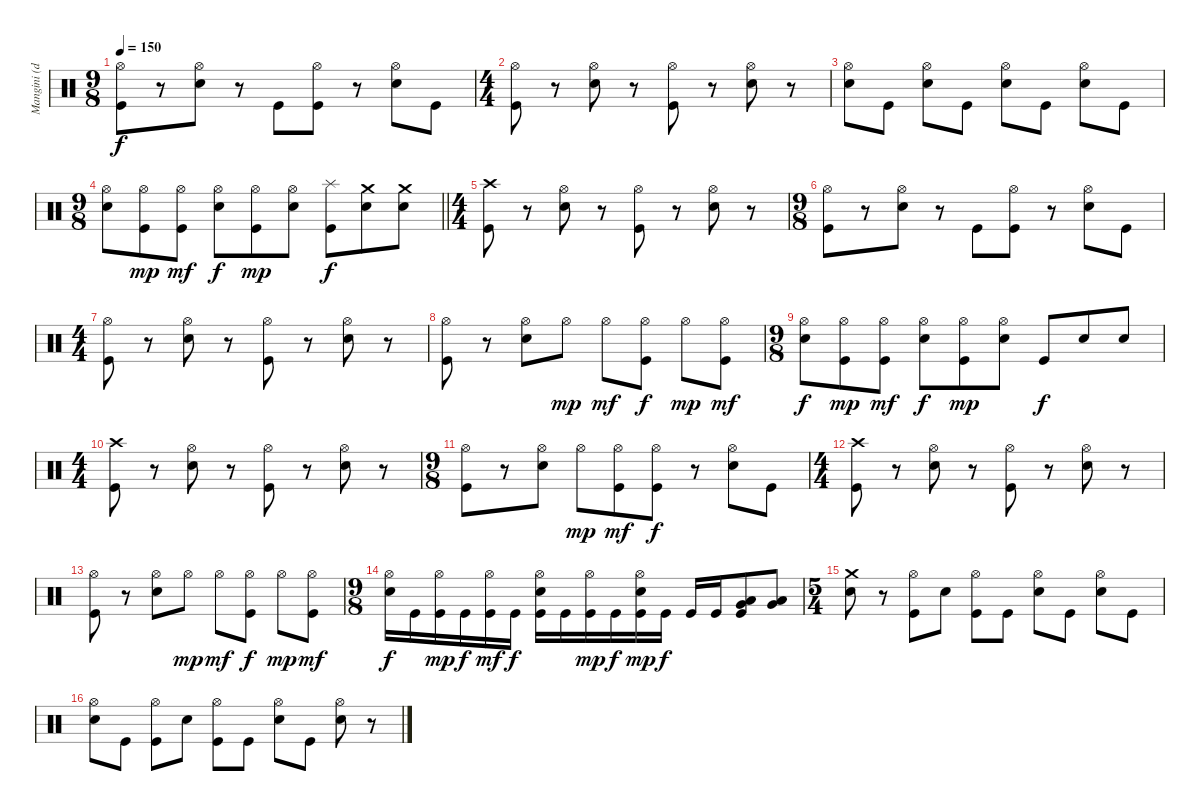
\track ("Mangini (drums)" "Mangini (d") {instrument percussion}
\staff {score}
\articulation defaults
\ts (9 8)
\tempo 150
\clef neutral
\ks aminor
("Hi-Hat (open)" "Kick (hit)").8{dy f} r.8 ("Hi-Hat (open)" "Snare (hit) 2").8 r.8 "Kick (hit)".8 ("Hi-Hat (open)" "Kick (hit)").8 r.8 ("Hi-Hat (open)" "Snare (hit) 2").8 "Kick (hit)".8 |
\ts (4 4)
("Hi-Hat (open)" "Kick (hit)").8 r.8 ("Hi-Hat (open)" "Snare (hit) 2").8 r.8 ("Hi-Hat (open)" "Kick (hit)").8 r.8 ("Hi-Hat (open)" "Snare (hit) 2").8 r.8 |
("Hi-Hat (open)" "Snare (hit) 2").8 "Kick (hit)".8 ("Hi-Hat (open)" "Snare (hit) 2").8 "Kick (hit)".8 ("Hi-Hat (open)" "Snare (hit) 2").8 "Kick (hit)".8 ("Hi-Hat (open)" "Snare (hit) 2").8 "Kick (hit)".8 |
\ts (9 8)
\barLineRight lightlight
("Hi-Hat (open)" "Snare (hit) 2").8 ("Hi-Hat (open)" "Kick (hit)").8{dy mp} ("Hi-Hat (open)" "Kick (hit)").8{dy mf} ("Hi-Hat (open)" "Snare (hit) 2").8{dy f} ("Hi-Hat (open)" "Kick (hit)").8{dy mp} ("Hi-Hat (open)" "Snare (hit) 2").8 ("Splash (hit)" "Kick (hit)").8{dy f} ("Crash medium (hit)" "Snare (hit) 2").8 ("Crash medium (hit)" "Snare (hit) 2").8 |
\ts (4 4)
("Crash high (hit)" "Kick (hit)").8 r.8 ("Hi-Hat (open)" "Snare (hit) 2").8 r.8 ("Hi-Hat (open)" "Kick (hit)").8 r.8 ("Hi-Hat (open)" "Snare (hit) 2").8 r.8 |
\ts (9 8)
("Hi-Hat (open)" "Kick (hit)").8 r.8 ("Hi-Hat (open)" "Snare (hit) 2").8 r.8 "Kick (hit)".8 ("Hi-Hat (open)" "Kick (hit)").8 r.8 ("Hi-Hat (open)" "Snare (hit) 2").8 "Kick (hit)".8 |
\ts (4 4)
("Hi-Hat (open)" "Kick (hit)").8 r.8 ("Hi-Hat (open)" "Snare (hit) 2").8 r.8 ("Hi-Hat (open)" "Kick (hit)").8 r.8 ("Hi-Hat (open)" "Snare (hit) 2").8 r.8 |
("Hi-Hat (open)" "Kick (hit)").8 r.8 ("Hi-Hat (open)" "Snare (hit) 2").8 "Hi-Hat (open)".8{dy mp} "Hi-Hat (open)".8{dy mf} ("Hi-Hat (open)" "Kick (hit)").8{dy f} "Hi-Hat (open)".8{dy mp} ("Hi-Hat (open)" "Kick (hit)").8{dy mf} |
\ts (9 8)
("Hi-Hat (open)" "Snare (hit) 2").8{dy f} ("Hi-Hat (open)" "Kick (hit)").8{dy mp} ("Hi-Hat (open)" "Kick (hit)").8{dy mf} ("Hi-Hat (open)" "Snare (hit) 2").8{dy f} ("Hi-Hat (open)" "Kick (hit)").8{dy mp} ("Hi-Hat (open)" "Snare (hit) 2").8 "Kick (hit)".8{dy f} "Snare (hit) 2".8 "Snare (hit) 2".8 |
\ts (4 4)
("Crash high (hit)" "Kick (hit)").8 r.8 ("Hi-Hat (open)" "Snare (hit) 2").8 r.8 ("Hi-Hat (open)" "Kick (hit)").8 r.8 ("Hi-Hat (open)" "Snare (hit) 2").8 r.8 |
\ts (9 8)
("Hi-Hat (open)" "Kick (hit)").8 r.8 ("Hi-Hat (open)" "Snare (hit) 2").8 "Hi-Hat (open)".8{dy mp} ("Hi-Hat (open)" "Kick (hit)").8{dy mf} ("Hi-Hat (open)" "Kick (hit)").8{dy f} r.8 ("Hi-Hat (open)" "Snare (hit) 2").8 "Kick (hit)".8 |
\ts (4 4)
("Crash high (hit)" "Kick (hit)").8 r.8 ("Hi-Hat (open)" "Snare (hit) 2").8 r.8 ("Hi-Hat (open)" "Kick (hit)").8 r.8 ("Hi-Hat (open)" "Snare (hit) 2").8 r.8 |
("Hi-Hat (open)" "Kick (hit)").8 r.8 ("Hi-Hat (open)" "Snare (hit) 2").8 "Hi-Hat (open)".8{dy mp} "Hi-Hat (open)".8{dy mf} ("Hi-Hat (open)" "Kick (hit)").8{dy f} "Hi-Hat (open)".8{dy mp} ("Hi-Hat (open)" "Kick (hit)").8{dy mf} |
\ts (9 8)
("Hi-Hat (open)" "Snare (hit) 2").16{dy f} "Kick (hit)".16 ("Hi-Hat (open)" "Kick (hit)").16{dy mp} "Kick (hit)".16{dy f} ("Hi-Hat (open)" "Kick (hit)").16{dy mf} "Kick (hit)".16{dy f} ("Hi-Hat (open)" "Snare (hit) 2" "Kick (hit)").16 "Kick (hit)".16 ("Hi-Hat (open)" "Kick (hit)").16{dy mp} "Kick (hit)".16{dy f} ("Hi-Hat (open)" "Snare (hit) 2" "Kick (hit)").16{dy mp} "Kick (hit)".16{dy f} "Kick (hit)".16 "Kick (hit)".16 ("Very Low Tom (hit)" "Low Tom (hit)" "Kick (hit)").8 ("Very Low Tom (hit)" "Low Tom (hit)").8 |
\ts (5 4)
("Crash medium (hit)" "Snare (hit) 2").8 r.8 ("Hi-Hat (open)" "Kick (hit)").8 "Snare (hit) 2".8 ("Hi-Hat (open)" "Kick (hit)").8 "Kick (hit)".8 ("Hi-Hat (open)" "Snare (hit) 2").8 "Kick (hit)".8 ("Hi-Hat (open)" "Snare (hit) 2").8 "Kick (hit)".8 |
("Hi-Hat (open)" "Snare (hit) 2").8 "Kick (hit)".8 ("Hi-Hat (open)" "Kick (hit)").8 "Snare (hit) 2".8 ("Hi-Hat (open)" "Kick (hit)").8 "Kick (hit)".8 ("Hi-Hat (open)" "Snare (hit) 2").8 "Kick (hit)".8 ("Hi-Hat (open)" "Snare (hit) 2").8 r.8
